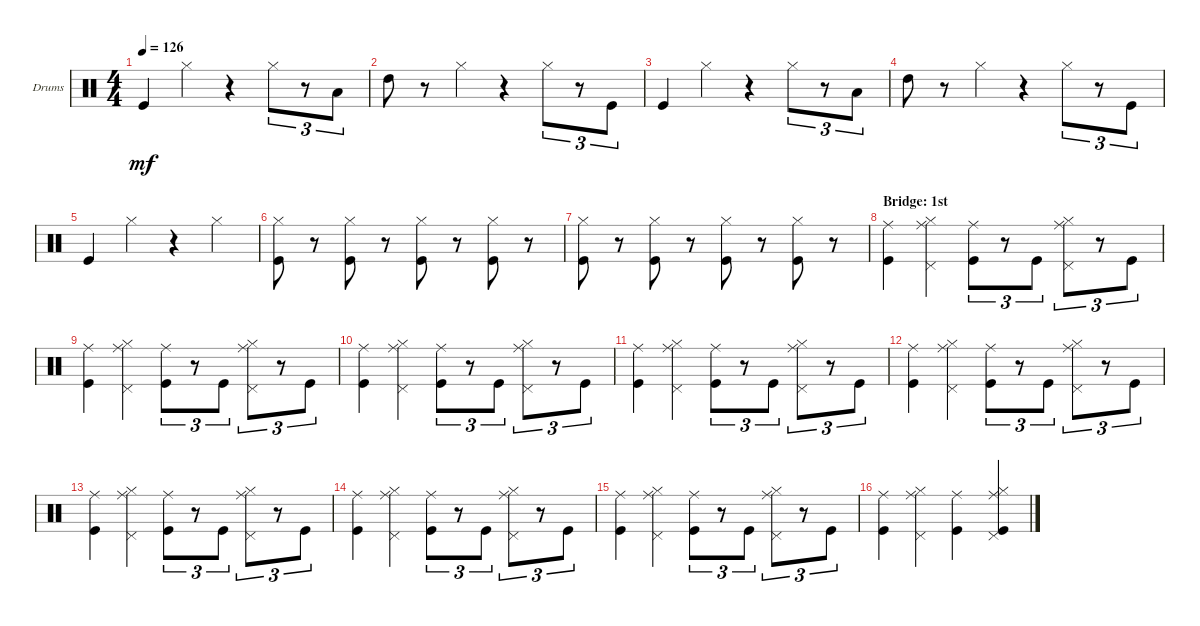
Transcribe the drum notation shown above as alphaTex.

\defaultSystemsLayout 4
\bracketExtendMode groupsimilarinstruments
\firstSystemTrackNameOrientation horizontal
\otherSystemsTrackNameOrientation horizontal
\track ("Drumkit" "Drums") {instrument percussion}
\staff {score}
\articulation defaults
\ts (4 4)
\tempo 126
\clef neutral
\scale
0.333333
\ks c "Kick (hit)".4{dy mf} "Hi-Hat (closed)".4
r.4 "Hi-Hat (closed)".8{tu (3 2)} r.8{tu (3 2)} "Low Tom (hit)".8{tu (3 2)} |
\scale
0.333333 "High Tom (hit)".8 r.8 "Hi-Hat (closed)".4 r.4 "Hi-Hat (closed)".8{tu (3 2)} r.8{tu (3 2)} "Kick (hit)".8{tu (3 2)} |
\scale
0.333333 "Kick (hit)".4 "Hi-Hat (closed)".4 r.4 "Hi-Hat (closed)".8{tu (3 2)} r.8{tu (3 2)} "Low Tom (hit)".8{tu (3 2)} |
\scale
0.333333 "High Tom (hit)".8 r.8 "Hi-Hat (closed)".4 r.4 "Hi-Hat (closed)".8{tu (3 2)} r.8{tu (3 2)} "Kick (hit)".8{tu (3 2)} |
\scale
0.333333 "Kick (hit)".4 "Hi-Hat (closed)".4 r.4 "Hi-Hat (closed)".4 |
\scale
0.333333 ("Hi-Hat (closed)" "Kick (hit)").8 r.8 ("Hi-Hat (closed)" "Kick (hit)").8 r.8 ("Hi-Hat (closed)" "Kick (hit)").8 r.8 ("Hi-Hat (closed)" "Kick (hit)").8 r.8 |
\scale
0.333333 ("Hi-Hat (closed)" "Kick (hit)").8 r.8 ("Hi-Hat (closed)" "Kick (hit)").8 r.8 ("Hi-Hat (closed)" "Kick (hit)").8 r.8 ("Hi-Hat (closed)" "Kick (hit)").8 r.8 |
\section ("" "Bridge: 1st")
\scale
0.333333 ("Ride (middle)" "Kick (hit)").4 ("Ride (middle)" "Pedal Hi-Hat (hit)" "Hi-Hat (closed)").4 ("Ride (middle)" "Kick (hit)").8{tu (3 2)} r.8{tu (3 2)} "Kick (hit)".8{tu (3 2)} ("Ride (middle)" "Pedal Hi-Hat (hit)" "Hi-Hat (closed)").8{tu (3 2)} r.8{tu (3 2)} "Kick (hit)".8{tu (3 2)} |
("Ride (middle)" "Kick (hit)").4 ("Ride (middle)" "Pedal Hi-Hat (hit)" "Hi-Hat (closed)").4 ("Ride (middle)" "Kick (hit)").8{tu (3 2)} r.8{tu (3 2)} "Kick (hit)".8{tu (3 2)} ("Ride (middle)" "Pedal Hi-Hat (hit)" "Hi-Hat (closed)").8{tu (3 2)} r.8{tu (3 2)} "Kick (hit)".8{tu (3 2)} |
("Ride (middle)" "Kick (hit)").4 ("Ride (middle)" "Pedal Hi-Hat (hit)" "Hi-Hat (closed)").4 ("Ride (middle)" "Kick (hit)").8{tu (3 2)} r.8{tu (3 2)} "Kick (hit)".8{tu (3 2)} ("Ride (middle)" "Pedal Hi-Hat (hit)" "Hi-Hat (closed)").8{tu (3 2)} r.8{tu (3 2)} "Kick (hit)".8{tu (3 2)} |
("Ride (middle)" "Kick (hit)").4 ("Ride (middle)" "Pedal Hi-Hat (hit)" "Hi-Hat (closed)").4 ("Ride (middle)" "Kick (hit)").8{tu (3 2)} r.8{tu (3 2)} "Kick (hit)".8{tu (3 2)} ("Ride (middle)" "Pedal Hi-Hat (hit)" "Hi-Hat (closed)").8{tu (3 2)} r.8{tu (3 2)} "Kick (hit)".8{tu (3 2)} |
("Ride (middle)" "Kick (hit)").4 ("Ride (middle)" "Pedal Hi-Hat (hit)" "Hi-Hat (closed)").4 ("Ride (middle)" "Kick (hit)").8{tu (3 2)} r.8{tu (3 2)} "Kick (hit)".8{tu (3 2)} ("Ride (middle)" "Pedal Hi-Hat (hit)" "Hi-Hat (closed)").8{tu (3 2)} r.8{tu (3 2)} "Kick (hit)".8{tu (3 2)} |
("Ride (middle)" "Kick (hit)").4 ("Ride (middle)" "Pedal Hi-Hat (hit)" "Hi-Hat (closed)").4 ("Ride (middle)" "Kick (hit)").8{tu (3 2)} r.8{tu (3 2)} "Kick (hit)".8{tu (3 2)} ("Ride (middle)" "Pedal Hi-Hat (hit)" "Hi-Hat (closed)").8{tu (3 2)} r.8{tu (3 2)} "Kick (hit)".8{tu (3 2)} |
("Ride (middle)" "Kick (hit)").4 ("Ride (middle)" "Pedal Hi-Hat (hit)" "Hi-Hat (closed)").4 ("Ride (middle)" "Kick (hit)").8{tu (3 2)} r.8{tu (3 2)} "Kick (hit)".8{tu (3 2)} ("Ride (middle)" "Pedal Hi-Hat (hit)" "Hi-Hat (closed)").8{tu (3 2)} r.8{tu (3 2)} "Kick (hit)".8{tu (3 2)} |
("Ride (middle)" "Kick (hit)").4 ("Ride (middle)" "Pedal Hi-Hat (hit)" "Hi-Hat (closed)").4 ("Ride (middle)" "Kick (hit)").8{tu (3 2)} r.8{tu (3 2)} "Kick (hit)".8{tu (3 2)} ("Ride (middle)" "Pedal Hi-Hat (hit)" "Hi-Hat (closed)").8{tu (3 2)} r.8{tu (3 2)} "Kick (hit)".8{tu (3 2)} |
("Ride (middle)" "Kick (hit)").4 ("Ride (middle)" "Pedal Hi-Hat (hit)" "Hi-Hat (closed)").4 ("Ride (middle)" "Kick (hit)").4 ("Ride (middle)" "Pedal Hi-Hat (hit)" "Kick (hit)" "Hi-Hat (closed)").4
